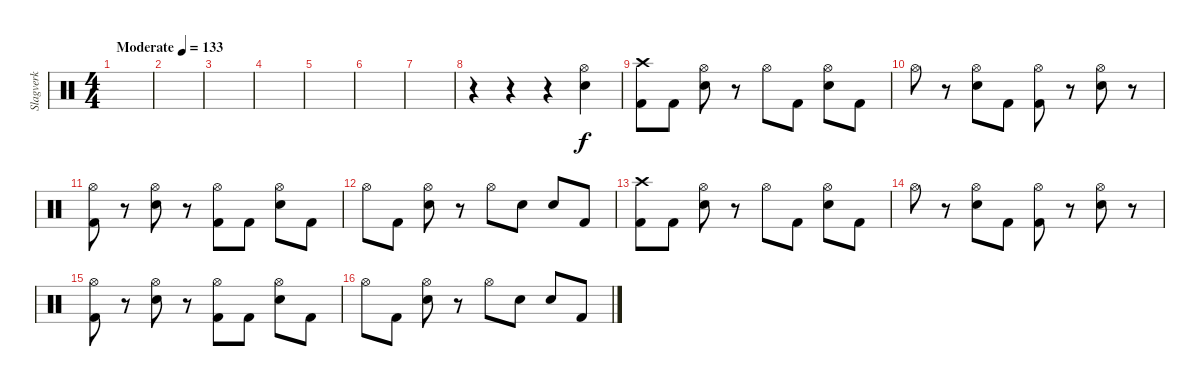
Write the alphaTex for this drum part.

\track ("Slagverk" "Slagverk") {instrument percussion}
\staff {score}
\articulation defaults
\ts (4 4)
\tempo (133 "Moderate")
\clef neutral
\ks c
|
|
|
|
|
|
|
r.4 r.4 r.4 ("Hi-Hat (open)" "Snare (hit) 2").4 |
("Crash high (hit)" "Kick (hit) 2").8 "Kick (hit) 2".8 ("Hi-Hat (open)" "Snare (hit) 2").8 r.8 "Hi-Hat (open)".8 "Kick (hit) 2".8 ("Hi-Hat (open)" "Snare (hit) 2").8 "Kick (hit) 2".8 |
"Hi-Hat (open)".8 r.8 ("Hi-Hat (open)" "Snare (hit) 2").8 "Kick (hit) 2".8 ("Hi-Hat (open)" "Kick (hit) 2").8 r.8 ("Hi-Hat (open)" "Snare (hit) 2").8 r.8 |
("Hi-Hat (open)" "Kick (hit) 2").8 r.8 ("Hi-Hat (open)" "Snare (hit) 2").8 r.8 ("Hi-Hat (open)" "Kick (hit) 2").8 "Kick (hit) 2".8 ("Hi-Hat (open)" "Snare (hit) 2").8 "Kick (hit) 2".8 |
"Hi-Hat (open)".8 "Kick (hit) 2".8 ("Hi-Hat (open)" "Snare (hit) 2").8 r.8 "Hi-Hat (open)".8 "Snare (hit) 2".8 "Snare (hit) 2".8 "Kick (hit) 2".8 |
("Crash high (hit)" "Kick (hit) 2").8 "Kick (hit) 2".8 ("Hi-Hat (open)" "Snare (hit) 2").8 r.8 "Hi-Hat (open)".8 "Kick (hit) 2".8 ("Hi-Hat (open)" "Snare (hit) 2").8 "Kick (hit) 2".8 |
"Hi-Hat (open)".8 r.8 ("Hi-Hat (open)" "Snare (hit) 2").8 "Kick (hit) 2".8 ("Hi-Hat (open)" "Kick (hit) 2").8 r.8 ("Hi-Hat (open)" "Snare (hit) 2").8 r.8 |
("Hi-Hat (open)" "Kick (hit) 2").8 r.8 ("Hi-Hat (open)" "Snare (hit) 2").8 r.8 ("Hi-Hat (open)" "Kick (hit) 2").8 "Kick (hit) 2".8 ("Hi-Hat (open)" "Snare (hit) 2").8 "Kick (hit) 2".8 |
"Hi-Hat (open)".8 "Kick (hit) 2".8 ("Hi-Hat (open)" "Snare (hit) 2").8 r.8 "Hi-Hat (open)".8 "Snare (hit) 2".8 "Snare (hit) 2".8 "Kick (hit) 2".8
